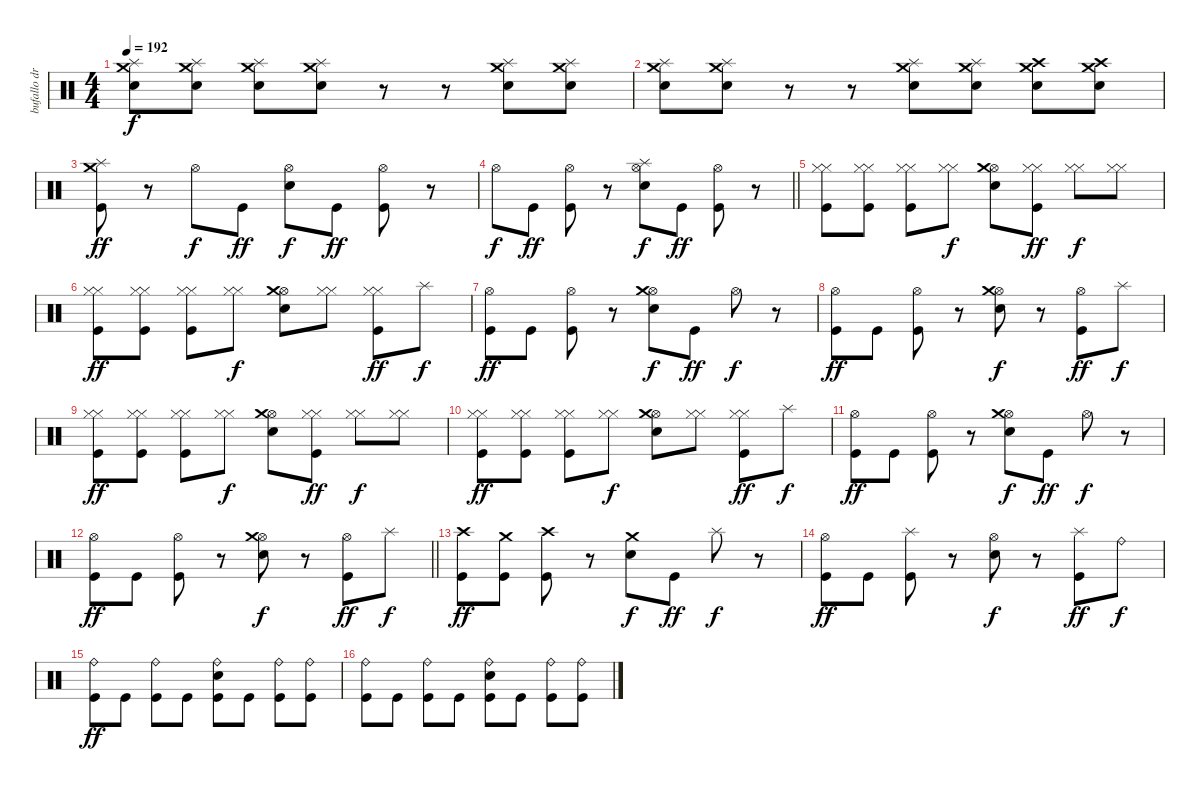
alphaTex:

\track ("bufallo drums" "bufallo dr") {instrument percussion}
\staff {score}
\articulation defaults
\ts (4 4)
\tempo 192
\clef neutral
\ks c
("Crash medium (hit)" "Splash (hit)" "Electric Snare (hit)").8{dy f} ("Crash medium (hit)" "Splash (hit)" "Electric Snare (hit)").8 ("Crash medium (hit)" "Splash (hit)" "Electric Snare (hit)").8 ("Crash medium (hit)" "Splash (hit)" "Electric Snare (hit)").8 r.8 r.8 ("Crash medium (hit)" "Splash (hit)" "Electric Snare (hit)").8 ("Crash medium (hit)" "Splash (hit)" "Electric Snare (hit)").8 |
("Crash medium (hit)" "Splash (hit)" "Electric Snare (hit)").8 ("Crash medium (hit)" "Splash (hit)" "Electric Snare (hit)").8 r.8 r.8 ("Crash medium (hit)" "Splash (hit)" "Electric Snare (hit)").8 ("Crash medium (hit)" "Splash (hit)" "Electric Snare (hit)").8 ("Crash high (hit)" "Crash medium (hit)" "Electric Snare (hit)").8 ("Crash high (hit)" "Crash medium (hit)" "Electric Snare (hit)").8 |
("Crash medium (hit)" "Splash (hit)" "Kick (hit)").8{dy ff} r.8 "Hi-Hat (open)".8{dy f} "Kick (hit)".8{dy ff} ("Hi-Hat (open)" "Electric Snare (hit)").8{dy f} "Kick (hit)".8{dy ff} ("Hi-Hat (open)" "Kick (hit)").8 r.8 |
\barLineRight lightlight "Hi-Hat (open)".8{dy f} "Kick (hit)".8{dy ff}
("Hi-Hat (open)" "Kick (hit)").8 r.8 ("Hi-Hat (open)" "Splash (hit)" "Electric Snare (hit)").8{dy f} "Kick (hit)".8{dy ff} ("Hi-Hat (open)" "Kick (hit)").8 r.8 |
("Hi-Hat (closed)" "Hi-Hat (closed)" "Kick (hit)").8 ("Hi-Hat (closed)" "Hi-Hat (closed)" "Kick (hit)").8 ("Hi-Hat (closed)" "Hi-Hat (closed)" "Kick (hit)").8 ("Hi-Hat (closed)" "Hi-Hat (closed)").8{dy f} ("Hi-Hat (open)" "Crash medium (hit)" "Electric Snare (hit)").8 ("Hi-Hat (closed)" "Hi-Hat (closed)" "Kick (hit)").8{dy ff} ("Hi-Hat (closed)" "Hi-Hat (closed)").8{dy f} ("Hi-Hat (closed)" "Hi-Hat (closed)").8 |
("Hi-Hat (closed)" "Hi-Hat (closed)" "Kick (hit)").8{dy ff} ("Hi-Hat (closed)" "Hi-Hat (closed)" "Kick (hit)").8 ("Hi-Hat (closed)" "Hi-Hat (closed)" "Kick (hit)").8 ("Hi-Hat (closed)" "Hi-Hat (closed)").8{dy f} ("Hi-Hat (open)" "Crash medium (hit)" "Electric Snare (hit)").8 ("Hi-Hat (closed)" "Hi-Hat (closed)").8 ("Hi-Hat (closed)" "Hi-Hat (closed)" "Kick (hit)").8{dy ff} "Splash (hit)".8{dy f} |
("Hi-Hat (open)" "Kick (hit)").8{dy ff} "Kick (hit)".8 ("Hi-Hat (open)" "Kick (hit)").8 r.8 ("Hi-Hat (open)" "Crash medium (hit)" "Electric Snare (hit)").8{dy f} "Kick (hit)".8{dy ff} "Hi-Hat (open)".8{dy f} r.8 |
("Hi-Hat (open)" "Kick (hit)").8{dy ff} "Kick (hit)".8 ("Hi-Hat (open)" "Kick (hit)").8 r.8 ("Hi-Hat (open)" "Crash medium (hit)" "Electric Snare (hit)").8{dy f} r.8 ("Hi-Hat (open)" "Kick (hit)").8{dy ff} "Splash (hit)".8{dy f} |
("Hi-Hat (closed)" "Hi-Hat (closed)" "Kick (hit)").8{dy ff} ("Hi-Hat (closed)" "Hi-Hat (closed)" "Kick (hit)").8 ("Hi-Hat (closed)" "Hi-Hat (closed)" "Kick (hit)").8 ("Hi-Hat (closed)" "Hi-Hat (closed)").8{dy f} ("Hi-Hat (open)" "Crash medium (hit)" "Electric Snare (hit)").8 ("Hi-Hat (closed)" "Hi-Hat (closed)" "Kick (hit)").8{dy ff} ("Hi-Hat (closed)" "Hi-Hat (closed)").8{dy f} ("Hi-Hat (closed)" "Hi-Hat (closed)").8 |
("Hi-Hat (closed)" "Hi-Hat (closed)" "Kick (hit)").8{dy ff} ("Hi-Hat (closed)" "Hi-Hat (closed)" "Kick (hit)").8 ("Hi-Hat (closed)" "Hi-Hat (closed)" "Kick (hit)").8 ("Hi-Hat (closed)" "Hi-Hat (closed)").8{dy f} ("Hi-Hat (open)" "Crash medium (hit)" "Electric Snare (hit)").8 ("Hi-Hat (closed)" "Hi-Hat (closed)").8 ("Hi-Hat (closed)" "Hi-Hat (closed)" "Kick (hit)").8{dy ff} "Splash (hit)".8{dy f} |
("Hi-Hat (open)" "Kick (hit)").8{dy ff} "Kick (hit)".8 ("Hi-Hat (open)" "Kick (hit)").8 r.8 ("Hi-Hat (open)" "Crash medium (hit)" "Electric Snare (hit)").8{dy f} "Kick (hit)".8{dy ff} "Hi-Hat (open)".8{dy f} r.8 |
\barLineRight lightlight
("Hi-Hat (open)" "Kick (hit)").8{dy ff} "Kick (hit)".8 ("Hi-Hat (open)" "Kick (hit)").8 r.8 ("Hi-Hat (open)" "Crash medium (hit)" "Electric Snare (hit)").8{dy f} r.8 ("Hi-Hat (open)" "Kick (hit)").8{dy ff} "Splash (hit)".8{dy f} |
("Crash high (hit)" "Kick (hit)").8{dy ff} ("Crash medium (hit)" "Kick (hit)").8 ("Crash high (hit)" "Kick (hit)").8 r.8 ("Crash medium (hit)" "Electric Snare (hit)").8{dy f} "Kick (hit)".8{dy ff} "Splash (hit)".8{dy f} r.8 |
("Hi-Hat (open)" "Kick (hit)").8{dy ff} "Kick (hit)".8 ("Splash (hit)" "Kick (hit)").8 r.8 ("Hi-Hat (open)" "Electric Snare (hit)").8{dy f} r.8 ("Splash (hit)" "Kick (hit)").8{dy ff} "Ride (bell)".8{dy f} |
("Ride (bell)" "Kick (hit)").8{dy ff} "Kick (hit)".8 ("Ride (bell)" "Kick (hit)").8 "Kick (hit)".8 ("Ride (bell)" "Electric Snare (hit)" "Kick (hit)").8 "Kick (hit)".8 ("Ride (bell)" "Kick (hit)").8 ("Ride (bell)" "Kick (hit)").8 |
("Ride (bell)" "Kick (hit)").8 "Kick (hit)".8 ("Ride (bell)" "Kick (hit)").8 "Kick (hit)".8 ("Ride (bell)" "Electric Snare (hit)" "Kick (hit)").8 "Kick (hit)".8 ("Ride (bell)" "Kick (hit)").8 ("Ride (bell)" "Kick (hit)").8
